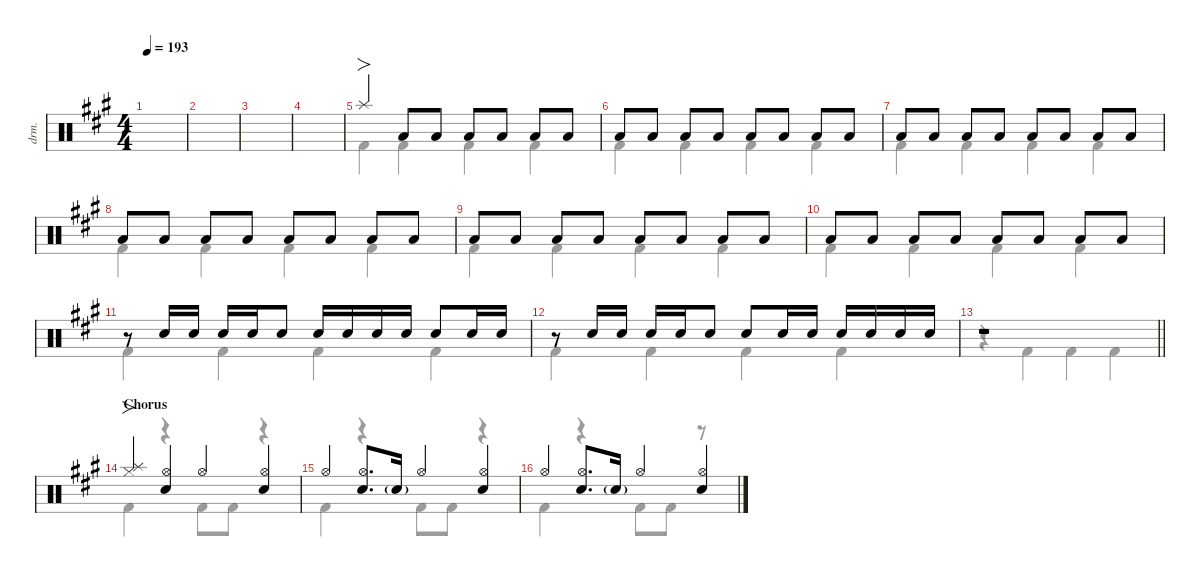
\defaultSystemsLayout 4
\hideDynamics
\bracketExtendMode nobrackets
\otherSystemsTrackNameOrientation horizontal
\track ("伊地知虹夏" "drm.") {instrument percussion}
\staff {score}
\articulation defaults
\voice
\ts (4 4)
\tempo 193
\clef neutral
\ks a
|
|
|
|
"Splash (hit)"{acc forcenatural}.4{fo beam Up} "Low Tom (hit)"{acc forcenatural}.8{beam Up} "Low Tom (hit)"{acc forcenatural}.8{beam Up} "Low Tom (hit)"{acc forcenatural}.8{beam Up} "Low Tom (hit)"{acc forcenatural}.8{beam Up} "Low Tom (hit)"{acc forcenatural}.8{beam Up} "Low Tom (hit)"{acc forcenatural}.8{beam Up} |
"Low Tom (hit)"{acc forcenatural}.8{beam Up} "Low Tom (hit)"{acc forcenatural}.8{beam Up} "Low Tom (hit)"{acc forcenatural}.8{beam Up} "Low Tom (hit)"{acc forcenatural}.8{beam Up} "Low Tom (hit)"{acc forcenatural}.8{beam Up} "Low Tom (hit)"{acc forcenatural}.8{beam Up} "Low Tom (hit)"{acc forcenatural}.8{beam Up} "Low Tom (hit)"{acc forcenatural}.8{beam Up} |
"Low Tom (hit)"{acc forcenatural}.8{beam Up} "Low Tom (hit)"{acc forcenatural}.8{beam Up} "Low Tom (hit)"{acc forcenatural}.8{beam Up} "Low Tom (hit)"{acc forcenatural}.8{beam Up} "Low Tom (hit)"{acc forcenatural}.8{beam Up} "Low Tom (hit)"{acc forcenatural}.8{beam Up} "Low Tom (hit)"{acc forcenatural}.8{beam Up} "Low Tom (hit)"{acc forcenatural}.8{beam Up} |
"Low Tom (hit)"{acc forcenatural}.8{beam Up} "Low Tom (hit)"{acc forcenatural}.8{beam Up} "Low Tom (hit)"{acc forcenatural}.8{beam Up} "Low Tom (hit)"{acc forcenatural}.8{beam Up} "Low Tom (hit)"{acc forcenatural}.8{beam Up} "Low Tom (hit)"{acc forcenatural}.8{beam Up} "Low Tom (hit)"{acc forcenatural}.8{beam Up} "Low Tom (hit)"{acc forcenatural}.8{beam Up} |
"Low Tom (hit)"{acc forcenatural}.8{beam Up} "Low Tom (hit)"{acc forcenatural}.8{beam Up} "Low Tom (hit)"{acc forcenatural}.8{beam Up} "Low Tom (hit)"{acc forcenatural}.8{beam Up} "Low Tom (hit)"{acc forcenatural}.8{beam Up} "Low Tom (hit)"{acc forcenatural}.8{beam Up} "Low Tom (hit)"{acc forcenatural}.8{beam Up} "Low Tom (hit)"{acc forcenatural}.8{beam Up} |
"Low Tom (hit)"{acc forcenatural}.8{beam Up} "Low Tom (hit)"{acc forcenatural}.8{beam Up} "Low Tom (hit)"{acc forcenatural}.8{beam Up} "Low Tom (hit)"{acc forcenatural}.8{beam Up} "Low Tom (hit)"{acc forcenatural}.8{beam Up} "Low Tom (hit)"{acc forcenatural}.8{beam Up} "Low Tom (hit)"{acc forcenatural}.8{beam Up} "Low Tom (hit)"{acc forcenatural}.8{beam Up} |
r.8{beam Up} "Snare (hit) 2"{acc forcenatural}.16{beam Up} "Snare (hit) 2"{acc forcenatural}.16{beam Up} "Snare (hit) 2"{acc forcenatural}.16{beam Up} "Snare (hit) 2"{acc forcenatural}.16{beam Up} "Snare (hit) 2"{acc forcenatural}.8{beam Up} "Snare (hit) 2"{acc forcenatural}.16{beam Up} "Snare (hit) 2"{acc forcenatural}.16{beam Up} "Snare (hit) 2"{acc forcenatural}.16{beam Up} "Snare (hit) 2"{acc forcenatural}.16{beam Up} "Snare (hit) 2"{acc forcenatural}.8{beam Up} "Snare (hit) 2"{acc forcenatural}.16{beam Up} "Snare (hit) 2"{acc forcenatural}.16{beam Up} |
r.8{beam Up} "Snare (hit) 2"{acc forcenatural}.16{beam Up} "Snare (hit) 2"{acc forcenatural}.16{beam Up} "Snare (hit) 2"{acc forcenatural}.16{beam Up} "Snare (hit) 2"{acc forcenatural}.16{beam Up} "Snare (hit) 2"{acc forcenatural}.8{beam Up} "Snare (hit) 2"{acc forcenatural}.8{beam Up} "Snare (hit) 2"{acc forcenatural}.16{beam Up} "Snare (hit) 2"{acc forcenatural}.16{beam Up} "Snare (hit) 2"{acc forcenatural}.16{beam Up} "Snare (hit) 2"{acc forcenatural}.16{beam Up} "Snare (hit) 2"{acc forcenatural}.16{beam Up} "Snare (hit) 2"{acc forcenatural}.16{beam Up} |
\barLineRight lightlight
r.1{beam Up} |
\section ("" "Chorus")
("Hi-Hat (closed)"{acc forcenatural} "Splash (hit)"{acc forcenatural}).4{fo beam Up} ("Hi-Hat (open)"{acc forcenatural} "Snare (hit) 2"{acc forcenatural}).4{beam Up} "Hi-Hat (open)"{acc forcenatural}.4{beam Up} ("Hi-Hat (open)"{acc forcenatural} "Snare (hit) 2"{acc forcenatural}).4{beam Up} |
"Hi-Hat (open)"{acc forcenatural}.4{beam Up} ("Hi-Hat (open)"{acc forcenatural} "Snare (hit) 2"{acc forcenatural}).8{d beam Up} "Snare (hit) 2"{g acc forcenatural}.16{beam Up} "Hi-Hat (open)"{acc forcenatural}.4{beam Up} ("Hi-Hat (open)"{acc forcenatural} "Snare (hit) 2"{acc forcenatural}).4{beam Up} |
"Hi-Hat (open)"{acc forcenatural}.4{beam Up} ("Hi-Hat (open)"{acc forcenatural} "Snare (hit) 2"{acc forcenatural}).8{d beam Up} "Snare (hit) 2"{g acc forcenatural}.16{beam Up} "Hi-Hat (open)"{acc forcenatural}.4{beam Up} ("Snare (hit) 2"{acc forcenatural} "Hi-Hat (open)"{acc forcenatural}).4{beam Up}
\voice
\clef neutral
\ottava regular
\simile none
\ks a
|
|
|
|
"Kick (hit) 2"{acc forcenatural}.4{beam Down} "Kick (hit) 2"{acc forcenatural}.4{beam Down} "Kick (hit) 2"{acc forcenatural}.4{beam Down} "Kick (hit) 2"{acc forcenatural}.4{beam Down} |
"Kick (hit) 2"{acc forcenatural}.4{beam Down} "Kick (hit) 2"{acc forcenatural}.4{beam Down} "Kick (hit) 2"{acc forcenatural}.4{beam Down} "Kick (hit) 2"{acc forcenatural}.4{beam Down} |
"Kick (hit) 2"{acc forcenatural}.4{beam Down} "Kick (hit) 2"{acc forcenatural}.4{beam Down} "Kick (hit) 2"{acc forcenatural}.4{beam Down} "Kick (hit) 2"{acc forcenatural}.4{beam Down} |
"Kick (hit) 2"{acc forcenatural}.4{beam Down} "Kick (hit) 2"{acc forcenatural}.4{beam Down} "Kick (hit) 2"{acc forcenatural}.4{beam Down} "Kick (hit) 2"{acc forcenatural}.4{beam Down} |
"Kick (hit) 2"{acc forcenatural}.4{beam Down} "Kick (hit) 2"{acc forcenatural}.4{beam Down} "Kick (hit) 2"{acc forcenatural}.4{beam Down} "Kick (hit) 2"{acc forcenatural}.4{beam Down} |
"Kick (hit) 2"{acc forcenatural}.4{beam Down} "Kick (hit) 2"{acc forcenatural}.4{beam Down} "Kick (hit) 2"{acc forcenatural}.4{beam Down} "Kick (hit) 2"{acc forcenatural}.4{beam Down} |
"Kick (hit) 2"{acc forcenatural}.4{beam Down} "Kick (hit) 2"{acc forcenatural}.4{beam Down} "Kick (hit) 2"{acc forcenatural}.4{beam Down} "Kick (hit) 2"{acc forcenatural}.4{beam Down} |
"Kick (hit) 2"{acc forcenatural}.4{beam Down} "Kick (hit) 2"{acc forcenatural}.4{beam Down} "Kick (hit) 2"{acc forcenatural}.4{beam Down} "Kick (hit) 2"{acc forcenatural}.4{beam Down} |
\barLineRight lightlight
r.4{beam Down} "Kick (hit) 2"{acc forcenatural}.4{beam Down} "Kick (hit) 2"{acc forcenatural}.4{beam Down} "Kick (hit) 2"{acc forcenatural}.4{beam Down} |
"Kick (hit) 2"{acc forcenatural}.4{beam Down} r.4{beam Down} "Kick (hit) 2"{acc forcenatural}.8{beam Down} "Kick (hit) 2"{acc forcenatural}.8{beam Down} r.4{beam Down} |
"Kick (hit) 2"{acc forcenatural}.4{beam Down} r.4{beam Down} "Kick (hit) 2"{acc forcenatural}.8{beam Down} "Kick (hit) 2"{acc forcenatural}.8{beam Down} r.4{beam Down} |
"Kick (hit) 2"{acc forcenatural}.4{beam Down} r.4{beam Down} "Kick (hit) 2"{acc forcenatural}.8{beam Down} "Kick (hit) 2"{acc forcenatural}.8{beam Down} r.8{beam Down}
